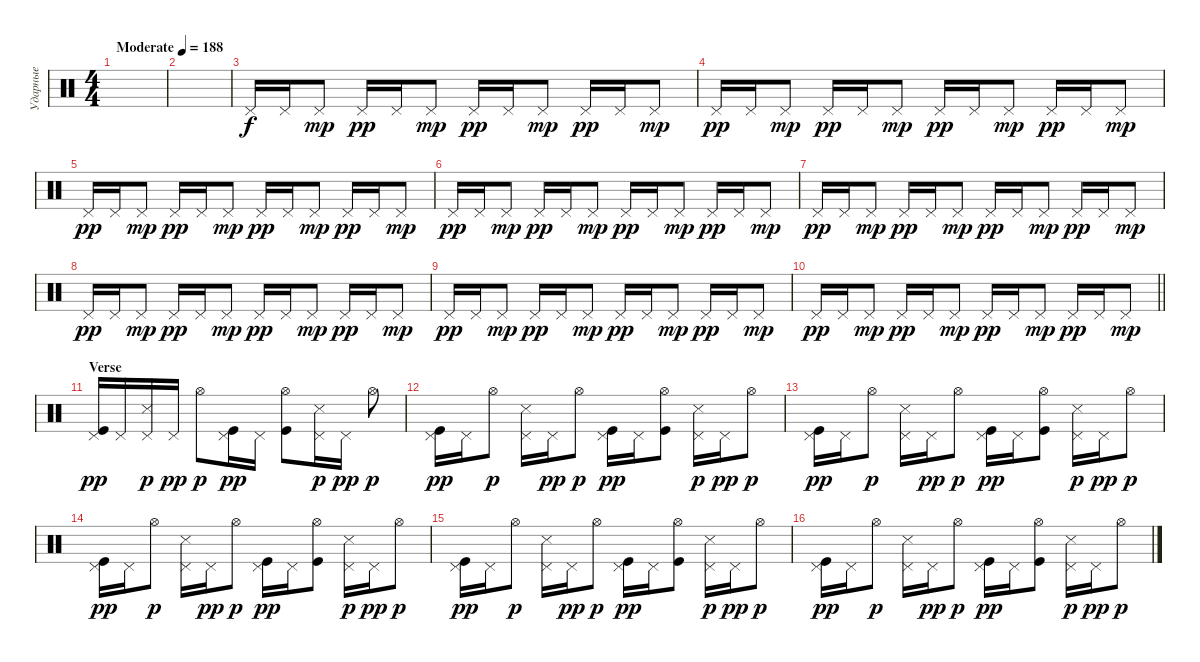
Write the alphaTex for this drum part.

\track ("Ударные" "Ударные") {instrument percussion}
\staff {score}
\articulation defaults
\ts (4 4)
\tempo (188 "Moderate")
\clef neutral
\ks c
|
|
"Pedal Hi-Hat (hit)".16 "Pedal Hi-Hat (hit)".16 "Pedal Hi-Hat (hit)".8{dy mp} "Pedal Hi-Hat (hit)".16{dy pp} "Pedal Hi-Hat (hit)".16 "Pedal Hi-Hat (hit)".8{dy mp} "Pedal Hi-Hat (hit)".16{dy pp} "Pedal Hi-Hat (hit)".16 "Pedal Hi-Hat (hit)".8{dy mp} "Pedal Hi-Hat (hit)".16{dy pp} "Pedal Hi-Hat (hit)".16 "Pedal Hi-Hat (hit)".8{dy mp} |
"Pedal Hi-Hat (hit)".16{dy pp} "Pedal Hi-Hat (hit)".16 "Pedal Hi-Hat (hit)".8{dy mp} "Pedal Hi-Hat (hit)".16{dy pp} "Pedal Hi-Hat (hit)".16 "Pedal Hi-Hat (hit)".8{dy mp} "Pedal Hi-Hat (hit)".16{dy pp} "Pedal Hi-Hat (hit)".16 "Pedal Hi-Hat (hit)".8{dy mp} "Pedal Hi-Hat (hit)".16{dy pp} "Pedal Hi-Hat (hit)".16 "Pedal Hi-Hat (hit)".8{dy mp} |
"Pedal Hi-Hat (hit)".16{dy pp} "Pedal Hi-Hat (hit)".16 "Pedal Hi-Hat (hit)".8{dy mp} "Pedal Hi-Hat (hit)".16{dy pp} "Pedal Hi-Hat (hit)".16 "Pedal Hi-Hat (hit)".8{dy mp} "Pedal Hi-Hat (hit)".16{dy pp} "Pedal Hi-Hat (hit)".16 "Pedal Hi-Hat (hit)".8{dy mp} "Pedal Hi-Hat (hit)".16{dy pp} "Pedal Hi-Hat (hit)".16 "Pedal Hi-Hat (hit)".8{dy mp} |
"Pedal Hi-Hat (hit)".16{dy pp} "Pedal Hi-Hat (hit)".16 "Pedal Hi-Hat (hit)".8{dy mp} "Pedal Hi-Hat (hit)".16{dy pp} "Pedal Hi-Hat (hit)".16 "Pedal Hi-Hat (hit)".8{dy mp} "Pedal Hi-Hat (hit)".16{dy pp} "Pedal Hi-Hat (hit)".16 "Pedal Hi-Hat (hit)".8{dy mp} "Pedal Hi-Hat (hit)".16{dy pp} "Pedal Hi-Hat (hit)".16 "Pedal Hi-Hat (hit)".8{dy mp} |
"Pedal Hi-Hat (hit)".16{dy pp} "Pedal Hi-Hat (hit)".16 "Pedal Hi-Hat (hit)".8{dy mp} "Pedal Hi-Hat (hit)".16{dy pp} "Pedal Hi-Hat (hit)".16 "Pedal Hi-Hat (hit)".8{dy mp} "Pedal Hi-Hat (hit)".16{dy pp} "Pedal Hi-Hat (hit)".16 "Pedal Hi-Hat (hit)".8{dy mp} "Pedal Hi-Hat (hit)".16{dy pp} "Pedal Hi-Hat (hit)".16 "Pedal Hi-Hat (hit)".8{dy mp} |
"Pedal Hi-Hat (hit)".16{dy pp} "Pedal Hi-Hat (hit)".16 "Pedal Hi-Hat (hit)".8{dy mp} "Pedal Hi-Hat (hit)".16{dy pp} "Pedal Hi-Hat (hit)".16 "Pedal Hi-Hat (hit)".8{dy mp} "Pedal Hi-Hat (hit)".16{dy pp} "Pedal Hi-Hat (hit)".16 "Pedal Hi-Hat (hit)".8{dy mp} "Pedal Hi-Hat (hit)".16{dy pp} "Pedal Hi-Hat (hit)".16 "Pedal Hi-Hat (hit)".8{dy mp} |
"Pedal Hi-Hat (hit)".16{dy pp} "Pedal Hi-Hat (hit)".16 "Pedal Hi-Hat (hit)".8{dy mp} "Pedal Hi-Hat (hit)".16{dy pp} "Pedal Hi-Hat (hit)".16 "Pedal Hi-Hat (hit)".8{dy mp} "Pedal Hi-Hat (hit)".16{dy pp} "Pedal Hi-Hat (hit)".16 "Pedal Hi-Hat (hit)".8{dy mp} "Pedal Hi-Hat (hit)".16{dy pp} "Pedal Hi-Hat (hit)".16 "Pedal Hi-Hat (hit)".8{dy mp} |
\barLineRight lightlight "Pedal Hi-Hat (hit)".16{dy pp} "Pedal Hi-Hat (hit)".16 "Pedal Hi-Hat (hit)".8{dy mp} "Pedal Hi-Hat (hit)".16{dy pp} "Pedal Hi-Hat (hit)".16 "Pedal Hi-Hat (hit)".8{dy mp} "Pedal Hi-Hat (hit)".16{dy pp} "Pedal Hi-Hat (hit)".16 "Pedal Hi-Hat (hit)".8{dy mp} "Pedal Hi-Hat (hit)".16{dy pp} "Pedal Hi-Hat (hit)".16 "Pedal Hi-Hat (hit)".8{dy mp}
|
\section ("" "Verse")
("Pedal Hi-Hat (hit)" "Kick (hit)").16{dy pp} "Pedal Hi-Hat (hit)".16 ("Pedal Hi-Hat (hit)" "Snare (side stick) 3").16{dy p} "Pedal Hi-Hat (hit)".16{dy pp} "Hi-Hat (open)".8{dy p} ("Pedal Hi-Hat (hit)" "Kick (hit)").16{dy pp} "Pedal Hi-Hat (hit)".16 ("Hi-Hat (open)" "Kick (hit)").8 ("Pedal Hi-Hat (hit)" "Snare (side stick) 3").16{dy p} "Pedal Hi-Hat (hit)".16{dy pp} "Hi-Hat (open)".8{dy p} |
("Pedal Hi-Hat (hit)" "Kick (hit)").16{dy pp} "Pedal Hi-Hat (hit)".16 "Hi-Hat (open)".8{dy p} ("Pedal Hi-Hat (hit)" "Snare (side stick) 3").16 "Pedal Hi-Hat (hit)".16{dy pp} "Hi-Hat (open)".8{dy p} ("Pedal Hi-Hat (hit)" "Kick (hit)").16{dy pp} "Pedal Hi-Hat (hit)".16 ("Hi-Hat (open)" "Kick (hit)").8 ("Pedal Hi-Hat (hit)" "Snare (side stick) 3").16{dy p} "Pedal Hi-Hat (hit)".16{dy pp} "Hi-Hat (open)".8{dy p} |
("Pedal Hi-Hat (hit)" "Kick (hit)").16{dy pp} "Pedal Hi-Hat (hit)".16 "Hi-Hat (open)".8{dy p} ("Pedal Hi-Hat (hit)" "Snare (side stick) 3").16 "Pedal Hi-Hat (hit)".16{dy pp} "Hi-Hat (open)".8{dy p} ("Pedal Hi-Hat (hit)" "Kick (hit)").16{dy pp} "Pedal Hi-Hat (hit)".16 ("Hi-Hat (open)" "Kick (hit)").8 ("Pedal Hi-Hat (hit)" "Snare (side stick) 3").16{dy p} "Pedal Hi-Hat (hit)".16{dy pp} "Hi-Hat (open)".8{dy p} |
("Pedal Hi-Hat (hit)" "Kick (hit)").16{dy pp} "Pedal Hi-Hat (hit)".16 "Hi-Hat (open)".8{dy p} ("Pedal Hi-Hat (hit)" "Snare (side stick) 3").16 "Pedal Hi-Hat (hit)".16{dy pp} "Hi-Hat (open)".8{dy p} ("Pedal Hi-Hat (hit)" "Kick (hit)").16{dy pp} "Pedal Hi-Hat (hit)".16 ("Hi-Hat (open)" "Kick (hit)").8 ("Pedal Hi-Hat (hit)" "Snare (side stick) 3").16{dy p} "Pedal Hi-Hat (hit)".16{dy pp} "Hi-Hat (open)".8{dy p} |
("Pedal Hi-Hat (hit)" "Kick (hit)").16{dy pp} "Pedal Hi-Hat (hit)".16 "Hi-Hat (open)".8{dy p} ("Pedal Hi-Hat (hit)" "Snare (side stick) 3").16 "Pedal Hi-Hat (hit)".16{dy pp} "Hi-Hat (open)".8{dy p} ("Pedal Hi-Hat (hit)" "Kick (hit)").16{dy pp} "Pedal Hi-Hat (hit)".16 ("Hi-Hat (open)" "Kick (hit)").8 ("Pedal Hi-Hat (hit)" "Snare (side stick) 3").16{dy p} "Pedal Hi-Hat (hit)".16{dy pp} "Hi-Hat (open)".8{dy p} |
("Pedal Hi-Hat (hit)" "Kick (hit)").16{dy pp} "Pedal Hi-Hat (hit)".16 "Hi-Hat (open)".8{dy p} ("Pedal Hi-Hat (hit)" "Snare (side stick) 3").16 "Pedal Hi-Hat (hit)".16{dy pp} "Hi-Hat (open)".8{dy p} ("Pedal Hi-Hat (hit)" "Kick (hit)").16{dy pp} "Pedal Hi-Hat (hit)".16 ("Hi-Hat (open)" "Kick (hit)").8 ("Pedal Hi-Hat (hit)" "Snare (side stick) 3").16{dy p} "Pedal Hi-Hat (hit)".16{dy pp} "Hi-Hat (open)".8{dy p}
